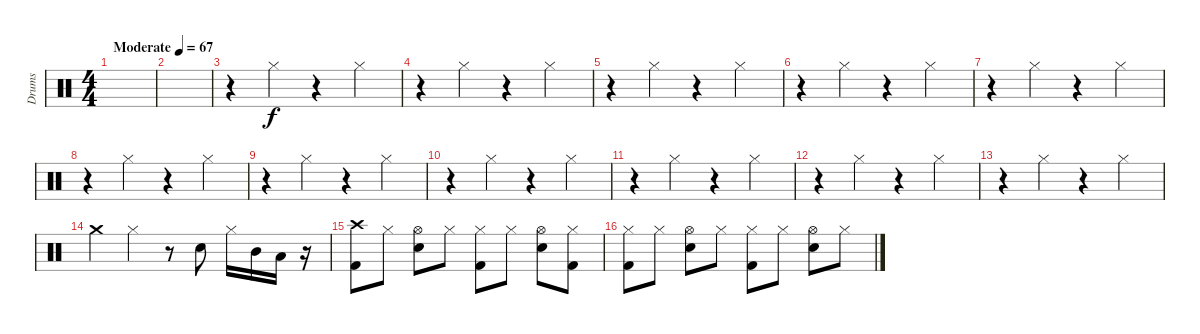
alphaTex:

\track ("Drums" "Drums") {instrument percussion}
\staff {score}
\articulation defaults
\ts (4 4)
\tempo (67 "Moderate")
\clef neutral
\ks c
|
|
r.4 "Hi-Hat (closed)".4 r.4 "Hi-Hat (closed)".4 |
r.4 "Hi-Hat (closed)".4 r.4 "Hi-Hat (closed)".4 |
r.4 "Hi-Hat (closed)".4 r.4 "Hi-Hat (closed)".4 |
r.4 "Hi-Hat (closed)".4 r.4 "Hi-Hat (closed)".4 |
r.4 "Hi-Hat (closed)".4 r.4 "Hi-Hat (closed)".4 |
r.4 "Hi-Hat (closed)".4 r.4 "Hi-Hat (closed)".4 |
r.4 "Hi-Hat (closed)".4 r.4 "Hi-Hat (closed)".4 |
r.4 "Hi-Hat (closed)".4 r.4 "Hi-Hat (closed)".4 |
r.4 "Hi-Hat (closed)".4 r.4 "Hi-Hat (closed)".4 |
r.4 "Hi-Hat (closed)".4 r.4 "Hi-Hat (closed)".4 |
r.4 "Hi-Hat (closed)".4 r.4 "Hi-Hat (closed)".4 |
"Crash medium (hit)".4 "Hi-Hat (closed)".4 r.8 "Electric Snare (hit)".8 "Hi-Hat (closed)".16 "Mid Tom (hit)".16 "Low Tom (hit)".16 r.16 |
("Kick (hit) 2" "Crash high (hit)").8 "Hi-Hat (closed)".8 ("Electric Snare (hit)" "Hi-Hat (open)").8 "Hi-Hat (closed)".8 ("Kick (hit) 2" "Hi-Hat (closed)").8 "Hi-Hat (closed)".8 ("Electric Snare (hit)" "Hi-Hat (open)").8 ("Kick (hit) 2" "Hi-Hat (closed)").8 |
("Kick (hit) 2" "Hi-Hat (closed)").8 "Hi-Hat (closed)".8 ("Electric Snare (hit)" "Hi-Hat (open)").8 "Hi-Hat (closed)".8 ("Kick (hit) 2" "Hi-Hat (closed)").8 "Hi-Hat (closed)".8 ("Electric Snare (hit)" "Hi-Hat (open)").8 "Hi-Hat (closed)".8
